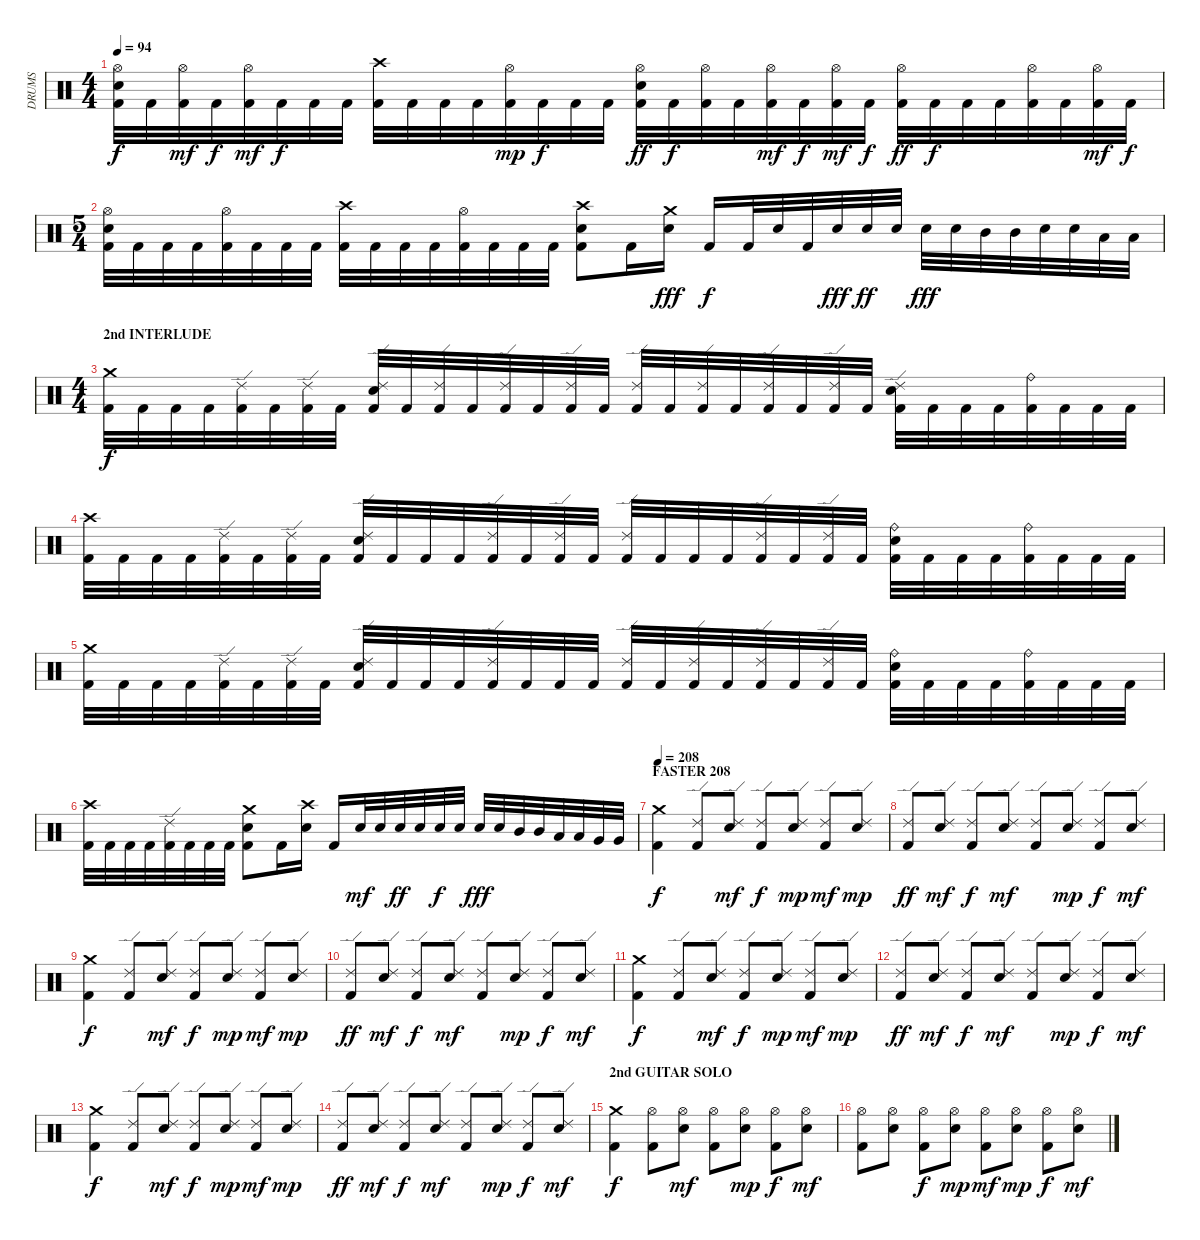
\track ("DRUMS" "DRUMS") {instrument percussion}
\staff {score}
\articulation defaults
\ts (4 4)
\tempo 94
\clef neutral
\ks c
("Hi-Hat (open)" "Electric Snare (hit)" "Kick (hit) 2").32{dy f} "Kick (hit) 2".32 ("Hi-Hat (open)" "Kick (hit) 2").32{dy mf} "Kick (hit) 2".32{dy f} ("Hi-Hat (open)" "Kick (hit) 2").32{dy mf} "Kick (hit) 2".32{dy f} "Kick (hit) 2".32 "Kick (hit) 2".32 ("Crash high (hit)" "Kick (hit) 2").32 "Kick (hit) 2".32 "Kick (hit) 2".32 "Kick (hit) 2".32 ("Hi-Hat (open)" "Kick (hit) 2").32{dy mp} "Kick (hit) 2".32{dy f} "Kick (hit) 2".32 "Kick (hit) 2".32 ("Hi-Hat (open)" "Electric Snare (hit)" "Kick (hit) 2").32{dy ff} "Kick (hit) 2".32{dy f} ("Hi-Hat (open)" "Kick (hit) 2").32 "Kick (hit) 2".32 ("Hi-Hat (open)" "Kick (hit) 2").32{dy mf} "Kick (hit) 2".32{dy f} ("Hi-Hat (open)" "Kick (hit) 2").32{dy mf} "Kick (hit) 2".32{dy f} ("Hi-Hat (open)" "Kick (hit) 2").32{dy ff} "Kick (hit) 2".32{dy f} "Kick (hit) 2".32 "Kick (hit) 2".32 ("Hi-Hat (open)" "Kick (hit) 2").32 "Kick (hit) 2".32 ("Hi-Hat (open)" "Kick (hit) 2").32{dy mf} "Kick (hit) 2".32{dy f} |
\ts (5 4)
("Hi-Hat (open)" "Electric Snare (hit)" "Kick (hit) 2").32 "Kick (hit) 2".32 "Kick (hit) 2".32 "Kick (hit) 2".32 ("Hi-Hat (open)" "Kick (hit) 2").32 "Kick (hit) 2".32 "Kick (hit) 2".32 "Kick (hit) 2".32 ("Crash high (hit)" "Kick (hit) 2").32 "Kick (hit) 2".32 "Kick (hit) 2".32 "Kick (hit) 2".32 ("Hi-Hat (open)" "Kick (hit) 2").32 "Kick (hit) 2".32 "Kick (hit) 2".32 "Kick (hit) 2".32 ("Crash high (hit)" "Electric Snare (hit)" "Kick (hit) 2").8 "Kick (hit) 2".16 ("Crash medium (hit)" "Electric Snare (hit)").16{dy fff} "Kick (hit) 2".16{dy f} "Kick (hit) 2".32 "Electric Snare (hit)".32 "Kick (hit) 2".32 "Electric Snare (hit)".32{dy fff} "Electric Snare (hit)".32{dy ff} "Electric Snare (hit)".32 "Electric Snare (hit)".32{dy fff} "Electric Snare (hit)".32 "Mid Tom (hit)".32 "Mid Tom (hit)".32 "Electric Snare (hit)".32 "Electric Snare (hit)".32 "Low Tom (hit)".32 "Low Tom (hit)".32 |
\ts (4 4)
\section ("" "2nd INTERLUDE")
("Crash medium (hit)" "Kick (hit) 2").32{dy f} "Kick (hit) 2".32 "Kick (hit) 2".32 "Kick (hit) 2".32 ("Ride (edge) 2" "Kick (hit) 2").32 "Kick (hit) 2".32 ("Ride (edge) 2" "Kick (hit) 2").32 "Kick (hit) 2".32 ("Ride (edge) 2" "Electric Snare (hit)" "Kick (hit) 2").32 "Kick (hit) 2".32 ("Ride (edge) 2" "Kick (hit) 2").32 "Kick (hit) 2".32 ("Ride (edge) 2" "Kick (hit) 2").32 "Kick (hit) 2".32 ("Ride (edge) 2" "Kick (hit) 2").32 "Kick (hit) 2".32 ("Ride (edge) 2" "Kick (hit) 2").32 "Kick (hit) 2".32 ("Ride (edge) 2" "Kick (hit) 2").32 "Kick (hit) 2".32 ("Ride (edge) 2" "Kick (hit) 2").32 "Kick (hit) 2".32 ("Ride (edge) 2" "Kick (hit) 2").32 "Kick (hit) 2".32 ("Ride (edge) 2" "Electric Snare (hit)" "Kick (hit) 2").32 "Kick (hit) 2".32 "Kick (hit) 2".32 "Kick (hit) 2".32 ("Ride (bell)" "Kick (hit) 2").32 "Kick (hit) 2".32 "Kick (hit) 2".32 "Kick (hit) 2".32 |
("Crash high (hit)" "Kick (hit) 2").32 "Kick (hit) 2".32 "Kick (hit) 2".32 "Kick (hit) 2".32 ("Ride (edge) 2" "Kick (hit) 2").32 "Kick (hit) 2".32 ("Ride (edge) 2" "Kick (hit) 2").32 "Kick (hit) 2".32 ("Ride (edge) 2" "Electric Snare (hit)" "Kick (hit) 2").32 "Kick (hit) 2".32 "Kick (hit) 2".32 "Kick (hit) 2".32 ("Ride (edge) 2" "Kick (hit) 2").32 "Kick (hit) 2".32 ("Ride (edge) 2" "Kick (hit) 2").32 "Kick (hit) 2".32 ("Ride (edge) 2" "Kick (hit) 2").32 "Kick (hit) 2".32 "Kick (hit) 2".32 "Kick (hit) 2".32 ("Ride (edge) 2" "Kick (hit) 2").32 "Kick (hit) 2".32 ("Ride (edge) 2" "Kick (hit) 2").32 "Kick (hit) 2".32 ("Ride (bell)" "Electric Snare (hit)" "Kick (hit) 2").32 "Kick (hit) 2".32 "Kick (hit) 2".32 "Kick (hit) 2".32 ("Ride (bell)" "Kick (hit) 2").32 "Kick (hit) 2".32 "Kick (hit) 2".32 "Kick (hit) 2".32 |
("Crash medium (hit)" "Kick (hit) 2").32 "Kick (hit) 2".32 "Kick (hit) 2".32 "Kick (hit) 2".32 ("Ride (edge) 2" "Kick (hit) 2").32 "Kick (hit) 2".32 ("Ride (edge) 2" "Kick (hit) 2").32 "Kick (hit) 2".32 ("Ride (edge) 2" "Electric Snare (hit)" "Kick (hit) 2").32 "Kick (hit) 2".32 "Kick (hit) 2".32 "Kick (hit) 2".32 ("Ride (edge) 2" "Kick (hit) 2").32 "Kick (hit) 2".32 "Kick (hit) 2".32 "Kick (hit) 2".32 ("Ride (edge) 2" "Kick (hit) 2").32 "Kick (hit) 2".32 ("Ride (edge) 2" "Kick (hit) 2").32 "Kick (hit) 2".32 ("Ride (edge) 2" "Kick (hit) 2").32 "Kick (hit) 2".32 ("Ride (edge) 2" "Kick (hit) 2").32 "Kick (hit) 2".32 ("Ride (bell)" "Electric Snare (hit)" "Kick (hit) 2").32 "Kick (hit) 2".32 "Kick (hit) 2".32 "Kick (hit) 2".32 ("Ride (bell)" "Kick (hit) 2").32 "Kick (hit) 2".32 "Kick (hit) 2".32 "Kick (hit) 2".32 |
("Crash high (hit)" "Kick (hit) 2").32 "Kick (hit) 2".32 "Kick (hit) 2".32 "Kick (hit) 2".32 ("Ride (edge) 2" "Kick (hit) 2").32 "Kick (hit) 2".32 "Kick (hit) 2".32 "Kick (hit) 2".32 ("Crash medium (hit)" "Electric Snare (hit)" "Kick (hit) 2").8 "Kick (hit) 2".16 ("Crash high (hit)" "Electric Snare (hit)").16 "Kick (hit) 2".16 "Electric Snare (hit)".32{dy mf} "Electric Snare (hit)".32 "Electric Snare (hit)".32{dy ff} "Electric Snare (hit)".32 "Electric Snare (hit)".32{dy f} "Electric Snare (hit)".32 "Electric Snare (hit)".32{dy fff} "Electric Snare (hit)".32 "Mid Tom (hit)".32 "Mid Tom (hit)".32 "Low Tom (hit)".32 "Low Tom (hit)".32 "Very Low Tom (hit)".32 "Very Low Tom (hit)".32 |
\section ("" "FASTER 208")
\tempo 208
("Crash medium (hit)" "Kick (hit) 2").4{dy f} ("Ride (edge) 2" "Kick (hit) 2").8 ("Ride (edge) 2" "Electric Snare (hit)").8{dy mf} ("Ride (edge) 2" "Kick (hit) 2").8{dy f} ("Ride (edge) 2" "Electric Snare (hit)").8{dy mp} ("Ride (edge) 2" "Kick (hit) 2").8{dy mf} ("Ride (edge) 2" "Electric Snare (hit)").8{dy mp} |
("Ride (edge) 2" "Kick (hit) 2").8{dy ff} ("Ride (edge) 2" "Electric Snare (hit)").8{dy mf} ("Ride (edge) 2" "Kick (hit) 2").8{dy f} ("Ride (edge) 2" "Electric Snare (hit)").8{dy mf} ("Ride (edge) 2" "Kick (hit) 2").8 ("Ride (edge) 2" "Electric Snare (hit)").8{dy mp} ("Ride (edge) 2" "Kick (hit) 2").8{dy f} ("Ride (edge) 2" "Electric Snare (hit)").8{dy mf} |
("Crash medium (hit)" "Kick (hit) 2").4{dy f} ("Ride (edge) 2" "Kick (hit) 2").8 ("Ride (edge) 2" "Electric Snare (hit)").8{dy mf} ("Ride (edge) 2" "Kick (hit) 2").8{dy f} ("Ride (edge) 2" "Electric Snare (hit)").8{dy mp} ("Ride (edge) 2" "Kick (hit) 2").8{dy mf} ("Ride (edge) 2" "Electric Snare (hit)").8{dy mp} |
("Ride (edge) 2" "Kick (hit) 2").8{dy ff} ("Ride (edge) 2" "Electric Snare (hit)").8{dy mf} ("Ride (edge) 2" "Kick (hit) 2").8{dy f} ("Ride (edge) 2" "Electric Snare (hit)").8{dy mf} ("Ride (edge) 2" "Kick (hit) 2").8 ("Ride (edge) 2" "Electric Snare (hit)").8{dy mp} ("Ride (edge) 2" "Kick (hit) 2").8{dy f} ("Ride (edge) 2" "Electric Snare (hit)").8{dy mf} |
("Crash medium (hit)" "Kick (hit) 2").4{dy f} ("Ride (edge) 2" "Kick (hit) 2").8 ("Ride (edge) 2" "Electric Snare (hit)").8{dy mf} ("Ride (edge) 2" "Kick (hit) 2").8{dy f} ("Ride (edge) 2" "Electric Snare (hit)").8{dy mp} ("Ride (edge) 2" "Kick (hit) 2").8{dy mf} ("Ride (edge) 2" "Electric Snare (hit)").8{dy mp} |
("Ride (edge) 2" "Kick (hit) 2").8{dy ff} ("Ride (edge) 2" "Electric Snare (hit)").8{dy mf} ("Ride (edge) 2" "Kick (hit) 2").8{dy f} ("Ride (edge) 2" "Electric Snare (hit)").8{dy mf} ("Ride (edge) 2" "Kick (hit) 2").8 ("Ride (edge) 2" "Electric Snare (hit)").8{dy mp} ("Ride (edge) 2" "Kick (hit) 2").8{dy f} ("Ride (edge) 2" "Electric Snare (hit)").8{dy mf} |
("Crash medium (hit)" "Kick (hit) 2").4{dy f} ("Ride (edge) 2" "Kick (hit) 2").8 ("Ride (edge) 2" "Electric Snare (hit)").8{dy mf} ("Ride (edge) 2" "Kick (hit) 2").8{dy f} ("Ride (edge) 2" "Electric Snare (hit)").8{dy mp} ("Ride (edge) 2" "Kick (hit) 2").8{dy mf} ("Ride (edge) 2" "Electric Snare (hit)").8{dy mp} |
("Ride (edge) 2" "Kick (hit) 2").8{dy ff} ("Ride (edge) 2" "Electric Snare (hit)").8{dy mf} ("Ride (edge) 2" "Kick (hit) 2").8{dy f} ("Ride (edge) 2" "Electric Snare (hit)").8{dy mf} ("Ride (edge) 2" "Kick (hit) 2").8 ("Ride (edge) 2" "Electric Snare (hit)").8{dy mp} ("Ride (edge) 2" "Kick (hit) 2").8{dy f} ("Ride (edge) 2" "Electric Snare (hit)").8{dy mf} |
\section ("" "2nd GUITAR SOLO")
("Crash medium (hit)" "Kick (hit) 2").4{dy f} ("Hi-Hat (open)" "Kick (hit) 2").8 ("Hi-Hat (open)" "Electric Snare (hit)").8{dy mf} ("Hi-Hat (open)" "Kick (hit) 2").8 ("Hi-Hat (open)" "Electric Snare (hit)").8{dy mp} ("Hi-Hat (open)" "Kick (hit) 2").8{dy f} ("Hi-Hat (open)" "Electric Snare (hit)").8{dy mf} |
("Hi-Hat (open)" "Kick (hit) 2").8 ("Hi-Hat (open)" "Electric Snare (hit)").8 ("Hi-Hat (open)" "Kick (hit) 2").8{dy f} ("Hi-Hat (open)" "Electric Snare (hit)").8{dy mp} ("Hi-Hat (open)" "Kick (hit) 2").8{dy mf} ("Hi-Hat (open)" "Electric Snare (hit)").8{dy mp} ("Hi-Hat (open)" "Kick (hit) 2").8{dy f} ("Hi-Hat (open)" "Electric Snare (hit)").8{dy mf}
